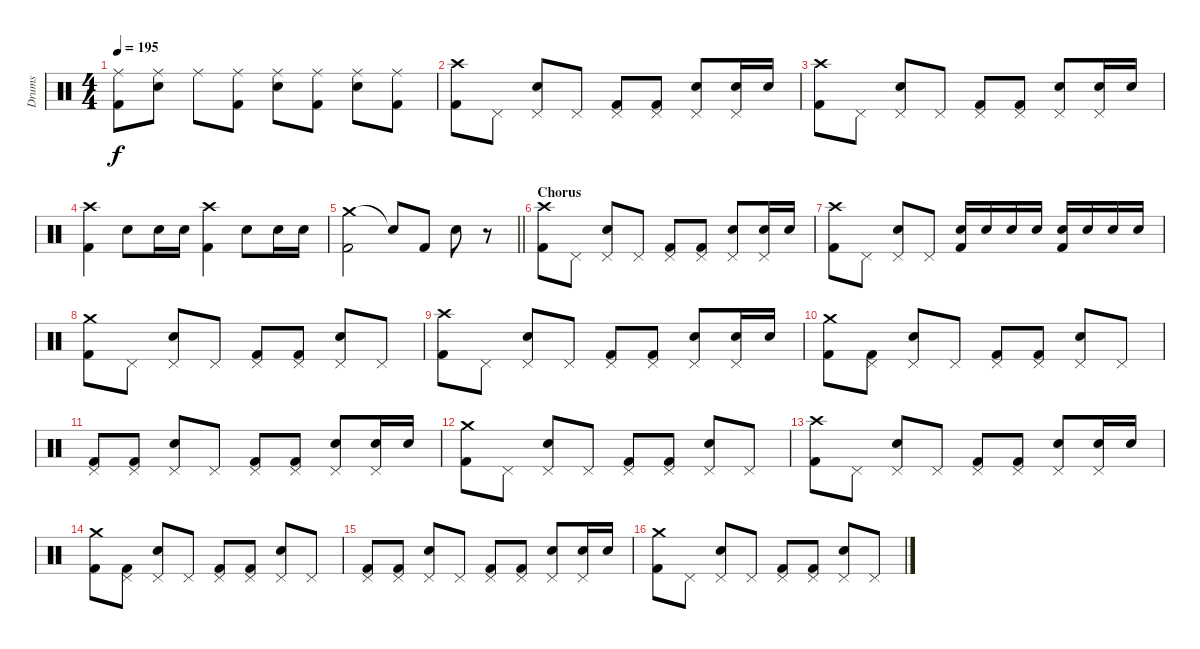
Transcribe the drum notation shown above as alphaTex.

\track ("Drums" "Drums") {instrument percussion}
\staff {score}
\articulation defaults
\ts (4 4)
\tempo 195
\clef neutral
\ks c
("Ride (middle)" "Kick (hit) 2").8{dy f} ("Ride (middle)" "Electric Snare (hit)").8 "Ride (middle)".8 ("Ride (middle)" "Kick (hit) 2").8 ("Ride (middle)" "Electric Snare (hit)").8 ("Ride (middle)" "Kick (hit) 2").8 ("Ride (middle)" "Electric Snare (hit)").8 ("Ride (middle)" "Kick (hit) 2").8 |
("Crash high (hit)" "Kick (hit) 2").8 "Pedal Hi-Hat (hit)".8 ("Pedal Hi-Hat (hit)" "Electric Snare (hit)").8 "Pedal Hi-Hat (hit)".8 ("Pedal Hi-Hat (hit)" "Kick (hit) 2").8 ("Pedal Hi-Hat (hit)" "Kick (hit) 2").8 ("Pedal Hi-Hat (hit)" "Electric Snare (hit)").8 ("Pedal Hi-Hat (hit)" "Electric Snare (hit)").16 "Electric Snare (hit)".16 |
("Crash high (hit)" "Kick (hit) 2").8 "Pedal Hi-Hat (hit)".8 ("Pedal Hi-Hat (hit)" "Electric Snare (hit)").8 "Pedal Hi-Hat (hit)".8 ("Pedal Hi-Hat (hit)" "Kick (hit) 2").8 ("Pedal Hi-Hat (hit)" "Kick (hit) 2").8 ("Pedal Hi-Hat (hit)" "Electric Snare (hit)").8 ("Pedal Hi-Hat (hit)" "Electric Snare (hit)").16 "Electric Snare (hit)".16 |
("Crash high (hit)" "Kick (hit) 2").4 "Electric Snare (hit)".8 "Electric Snare (hit)".16 "Electric Snare (hit)".16 ("Crash high (hit)" "Kick (hit) 2").4 "Electric Snare (hit)".8 "Electric Snare (hit)".16 "Electric Snare (hit)".16 |
\barLineRight lightlight
("Crash medium (hit)" "Kick (hit) 2").2 "Snare (hit)"{t}.8 "Kick (hit) 2".8 "Electric Snare (hit)".8 r.8 |
\section ("" "Chorus")
("Crash high (hit)" "Kick (hit) 2").8 "Pedal Hi-Hat (hit)".8 ("Pedal Hi-Hat (hit)" "Electric Snare (hit)").8 "Pedal Hi-Hat (hit)".8 ("Pedal Hi-Hat (hit)" "Kick (hit) 2").8 ("Pedal Hi-Hat (hit)" "Kick (hit) 2").8 ("Pedal Hi-Hat (hit)" "Electric Snare (hit)").8 ("Pedal Hi-Hat (hit)" "Electric Snare (hit)").16 "Electric Snare (hit)".16 |
("Crash high (hit)" "Kick (hit) 2").8 "Pedal Hi-Hat (hit)".8 ("Pedal Hi-Hat (hit)" "Electric Snare (hit)").8 "Pedal Hi-Hat (hit)".8 ("Electric Snare (hit)" "Kick (hit) 2").16 "Electric Snare (hit)".16 "Electric Snare (hit)".16 "Electric Snare (hit)".16 ("Electric Snare (hit)" "Kick (hit) 2").16 "Electric Snare (hit)".16 "Electric Snare (hit)".16 "Electric Snare (hit)".16 |
("Crash medium (hit)" "Kick (hit) 2").8 "Pedal Hi-Hat (hit)".8 ("Pedal Hi-Hat (hit)" "Electric Snare (hit)").8 "Pedal Hi-Hat (hit)".8 ("Pedal Hi-Hat (hit)" "Kick (hit) 2").8 ("Pedal Hi-Hat (hit)" "Kick (hit) 2").8 ("Pedal Hi-Hat (hit)" "Electric Snare (hit)").8 "Pedal Hi-Hat (hit)".8 |
("Crash high (hit)" "Kick (hit) 2").8 "Pedal Hi-Hat (hit)".8 ("Pedal Hi-Hat (hit)" "Electric Snare (hit)").8 "Pedal Hi-Hat (hit)".8 ("Pedal Hi-Hat (hit)" "Kick (hit) 2").8 ("Pedal Hi-Hat (hit)" "Kick (hit) 2").8 ("Pedal Hi-Hat (hit)" "Electric Snare (hit)").8 ("Pedal Hi-Hat (hit)" "Electric Snare (hit)").16 "Electric Snare (hit)".16 |
("Crash medium (hit)" "Kick (hit) 2").8 ("Pedal Hi-Hat (hit)" "Kick (hit) 2").8 ("Pedal Hi-Hat (hit)" "Electric Snare (hit)").8 "Pedal Hi-Hat (hit)".8 ("Pedal Hi-Hat (hit)" "Kick (hit) 2").8 ("Pedal Hi-Hat (hit)" "Kick (hit) 2").8 ("Pedal Hi-Hat (hit)" "Electric Snare (hit)").8 "Pedal Hi-Hat (hit)".8 |
("Pedal Hi-Hat (hit)" "Kick (hit) 2").8 ("Pedal Hi-Hat (hit)" "Kick (hit) 2").8 ("Pedal Hi-Hat (hit)" "Electric Snare (hit)").8 "Pedal Hi-Hat (hit)".8 ("Pedal Hi-Hat (hit)" "Kick (hit) 2").8 ("Pedal Hi-Hat (hit)" "Kick (hit) 2").8 ("Pedal Hi-Hat (hit)" "Electric Snare (hit)").8 ("Pedal Hi-Hat (hit)" "Electric Snare (hit)").16 "Electric Snare (hit)".16 |
("Crash medium (hit)" "Kick (hit) 2").8 "Pedal Hi-Hat (hit)".8 ("Pedal Hi-Hat (hit)" "Electric Snare (hit)").8 "Pedal Hi-Hat (hit)".8 ("Pedal Hi-Hat (hit)" "Kick (hit) 2").8 ("Pedal Hi-Hat (hit)" "Kick (hit) 2").8 ("Pedal Hi-Hat (hit)" "Electric Snare (hit)").8 "Pedal Hi-Hat (hit)".8 |
("Crash high (hit)" "Kick (hit) 2").8 "Pedal Hi-Hat (hit)".8 ("Pedal Hi-Hat (hit)" "Electric Snare (hit)").8 "Pedal Hi-Hat (hit)".8 ("Pedal Hi-Hat (hit)" "Kick (hit) 2").8 ("Pedal Hi-Hat (hit)" "Kick (hit) 2").8 ("Pedal Hi-Hat (hit)" "Electric Snare (hit)").8 ("Pedal Hi-Hat (hit)" "Electric Snare (hit)").16 "Electric Snare (hit)".16 |
("Crash medium (hit)" "Kick (hit) 2").8 ("Pedal Hi-Hat (hit)" "Kick (hit) 2").8 ("Pedal Hi-Hat (hit)" "Electric Snare (hit)").8 "Pedal Hi-Hat (hit)".8 ("Pedal Hi-Hat (hit)" "Kick (hit) 2").8 ("Pedal Hi-Hat (hit)" "Kick (hit) 2").8 ("Pedal Hi-Hat (hit)" "Electric Snare (hit)").8 "Pedal Hi-Hat (hit)".8 |
("Pedal Hi-Hat (hit)" "Kick (hit) 2").8 ("Pedal Hi-Hat (hit)" "Kick (hit) 2").8 ("Pedal Hi-Hat (hit)" "Electric Snare (hit)").8 "Pedal Hi-Hat (hit)".8 ("Pedal Hi-Hat (hit)" "Kick (hit) 2").8 ("Pedal Hi-Hat (hit)" "Kick (hit) 2").8 ("Pedal Hi-Hat (hit)" "Electric Snare (hit)").8 ("Pedal Hi-Hat (hit)" "Electric Snare (hit)").16 "Electric Snare (hit)".16 |
("Crash medium (hit)" "Kick (hit) 2").8 "Pedal Hi-Hat (hit)".8 ("Pedal Hi-Hat (hit)" "Electric Snare (hit)").8 "Pedal Hi-Hat (hit)".8 ("Pedal Hi-Hat (hit)" "Kick (hit) 2").8 ("Pedal Hi-Hat (hit)" "Kick (hit) 2").8 ("Pedal Hi-Hat (hit)" "Electric Snare (hit)").8 "Pedal Hi-Hat (hit)".8
